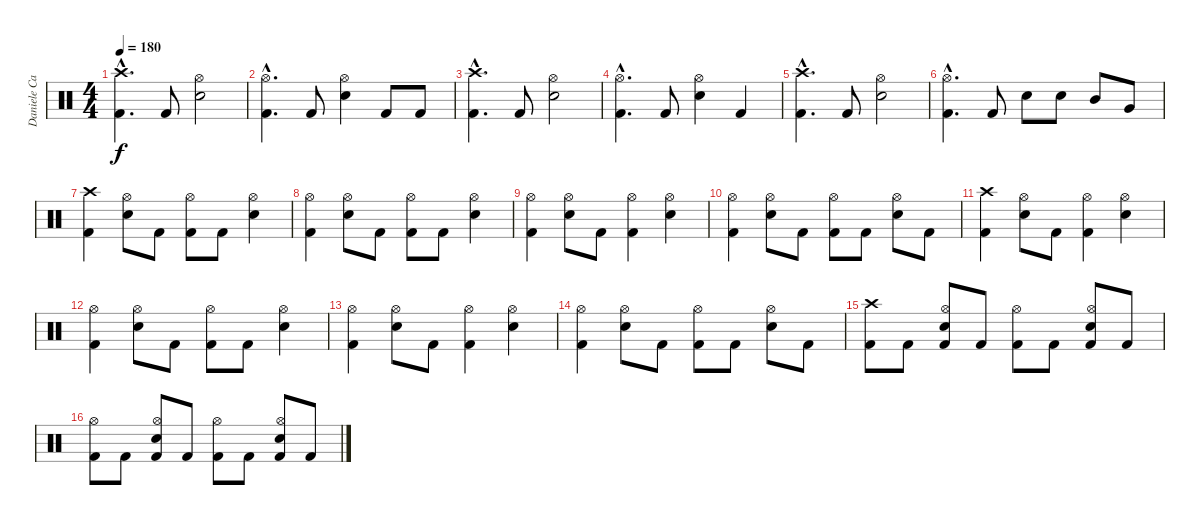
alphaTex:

\track ("Daniele Carbonera " "Daniele Ca") {instrument percussion}
\staff {score}
\articulation defaults
\ts (4 4)
\tempo 180
\clef neutral
\ks c
("Crash high (hit)"{hac} "Kick (hit) 2"{hac}).4{d dy f} "Kick (hit) 2".8 ("Hi-Hat (open)" "Electric Snare (hit)").2 |
("Hi-Hat (open)"{hac} "Kick (hit) 2"{hac}).4{d} "Kick (hit) 2".8 ("Hi-Hat (open)" "Electric Snare (hit)").4 "Kick (hit) 2".8 "Kick (hit) 2".8 |
("Crash high (hit)"{hac} "Kick (hit) 2"{hac}).4{d} "Kick (hit) 2".8 ("Hi-Hat (open)" "Electric Snare (hit)").2 |
("Hi-Hat (open)"{hac} "Kick (hit) 2"{hac}).4{d} "Kick (hit) 2".8 ("Hi-Hat (open)" "Electric Snare (hit)").4 "Kick (hit) 2".4 |
("Crash high (hit)"{hac} "Kick (hit) 2"{hac}).4{d} "Kick (hit) 2".8 ("Hi-Hat (open)" "Electric Snare (hit)").2 |
("Hi-Hat (open)"{hac} "Kick (hit) 2"{hac}).4{d} "Kick (hit) 2".8 "Electric Snare (hit)".8 "Electric Snare (hit)".8 "Mid Tom (hit)".8 "Very Low Tom (hit)".8 |
("Crash high (hit)" "Kick (hit) 2").4 ("Hi-Hat (open)" "Electric Snare (hit)").8 "Kick (hit) 2".8 ("Hi-Hat (open)" "Kick (hit) 2").8 "Kick (hit) 2".8 ("Hi-Hat (open)" "Electric Snare (hit)").4 |
("Hi-Hat (open)" "Kick (hit) 2").4 ("Hi-Hat (open)" "Electric Snare (hit)").8 "Kick (hit) 2".8 ("Hi-Hat (open)" "Kick (hit) 2").8 "Kick (hit) 2".8 ("Hi-Hat (open)" "Electric Snare (hit)").4 |
("Hi-Hat (open)" "Kick (hit) 2").4 ("Hi-Hat (open)" "Electric Snare (hit)").8 "Kick (hit) 2".8 ("Hi-Hat (open)" "Kick (hit) 2").4 ("Hi-Hat (open)" "Electric Snare (hit)").4 |
("Hi-Hat (open)" "Kick (hit) 2").4 ("Hi-Hat (open)" "Electric Snare (hit)").8 "Kick (hit) 2".8 ("Hi-Hat (open)" "Kick (hit) 2").8 "Kick (hit) 2".8 ("Hi-Hat (open)" "Electric Snare (hit)").8 "Kick (hit) 2".8 |
("Crash high (hit)" "Kick (hit) 2").4 ("Hi-Hat (open)" "Electric Snare (hit)").8 "Kick (hit) 2".8 ("Hi-Hat (open)" "Kick (hit) 2").4 ("Hi-Hat (open)" "Electric Snare (hit)").4 |
("Hi-Hat (open)" "Kick (hit) 2").4 ("Hi-Hat (open)" "Electric Snare (hit)").8 "Kick (hit) 2".8 ("Hi-Hat (open)" "Kick (hit) 2").8 "Kick (hit) 2".8 ("Hi-Hat (open)" "Electric Snare (hit)").4 |
("Hi-Hat (open)" "Kick (hit) 2").4 ("Hi-Hat (open)" "Electric Snare (hit)").8 "Kick (hit) 2".8 ("Hi-Hat (open)" "Kick (hit) 2").4 ("Hi-Hat (open)" "Electric Snare (hit)").4 |
("Hi-Hat (open)" "Kick (hit) 2").4 ("Hi-Hat (open)" "Electric Snare (hit)").8 "Kick (hit) 2".8 ("Hi-Hat (open)" "Kick (hit) 2").8 "Kick (hit) 2".8 ("Hi-Hat (open)" "Electric Snare (hit)").8 "Kick (hit) 2".8 |
("Crash high (hit)" "Kick (hit) 2").8 "Kick (hit) 2".8 ("Hi-Hat (open)" "Electric Snare (hit)" "Kick (hit) 2").8 "Kick (hit) 2".8 ("Hi-Hat (open)" "Kick (hit) 2").8 "Kick (hit) 2".8 ("Hi-Hat (open)" "Electric Snare (hit)" "Kick (hit) 2").8 "Kick (hit) 2".8 |
("Hi-Hat (open)" "Kick (hit) 2").8 "Kick (hit) 2".8 ("Hi-Hat (open)" "Electric Snare (hit)" "Kick (hit) 2").8 "Kick (hit) 2".8 ("Hi-Hat (open)" "Kick (hit) 2").8 "Kick (hit) 2".8 ("Hi-Hat (open)" "Electric Snare (hit)" "Kick (hit) 2").8 "Kick (hit) 2".8
